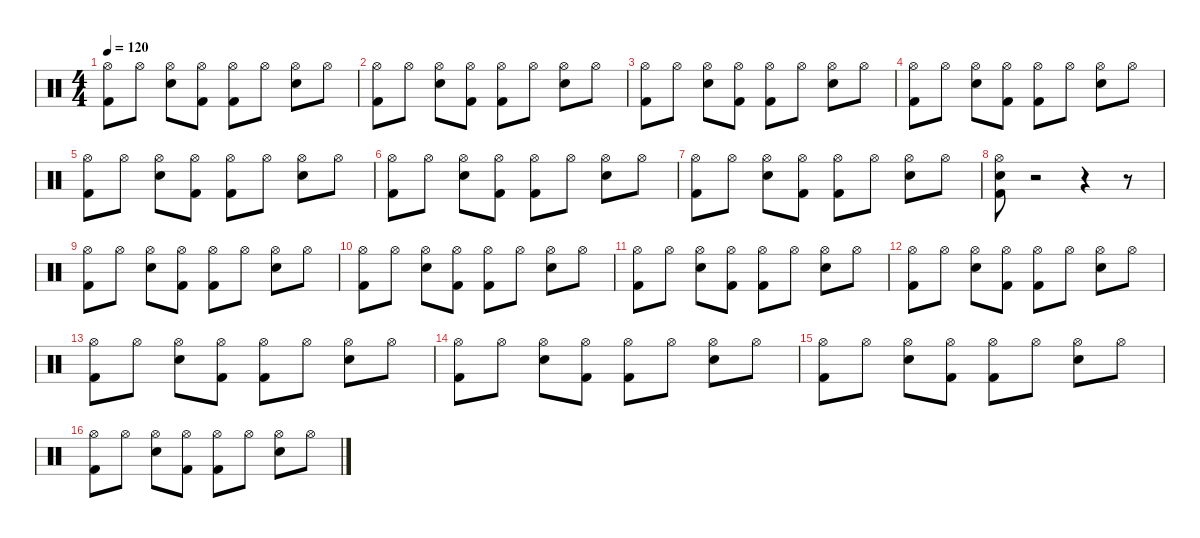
\defaultSystemsLayout 4
\hideDynamics
\bracketExtendMode nobrackets
\singleTrackTrackNamePolicy hidden
\multiTrackTrackNamePolicy hidden
\firstSystemTrackNameMode fullname
\firstSystemTrackNameOrientation horizontal
\otherSystemsTrackNameOrientation horizontal
\track ("Percussion" "drm.") {instrument percussion}
\staff {score}
\articulation defaults
\ts (4 4)
\tempo 120
\clef neutral
\ks c
("Hi-Hat (open)" "Kick (hit) 2").8{dy f beam Down} "Hi-Hat (open)".8{beam Down} ("Hi-Hat (open)" "Snare (hit) 2").8{beam Down} ("Hi-Hat (open)" "Kick (hit) 2").8{beam Down} ("Hi-Hat (open)" "Kick (hit) 2").8{beam Down} "Hi-Hat (open)".8{beam Down} ("Hi-Hat (open)" "Snare (hit) 2").8{beam Down} "Hi-Hat (open)".8{beam Down} |
("Hi-Hat (open)" "Kick (hit) 2").8{beam Down} "Hi-Hat (open)".8{beam Down} ("Hi-Hat (open)" "Snare (hit) 2").8{beam Down} ("Hi-Hat (open)" "Kick (hit) 2").8{beam Down} ("Hi-Hat (open)" "Kick (hit) 2").8{beam Down} "Hi-Hat (open)".8{beam Down} ("Hi-Hat (open)" "Snare (hit) 2").8{beam Down} "Hi-Hat (open)".8{beam Down} |
("Hi-Hat (open)" "Kick (hit) 2").8{beam Down} "Hi-Hat (open)".8{beam Down} ("Hi-Hat (open)" "Snare (hit) 2").8{beam Down} ("Hi-Hat (open)" "Kick (hit) 2").8{beam Down} ("Hi-Hat (open)" "Kick (hit) 2").8{beam Down} "Hi-Hat (open)".8{beam Down} ("Hi-Hat (open)" "Snare (hit) 2").8{beam Down} "Hi-Hat (open)".8{beam Down} |
("Hi-Hat (open)" "Kick (hit) 2").8{beam Down} "Hi-Hat (open)".8{beam Down} ("Hi-Hat (open)" "Snare (hit) 2").8{beam Down} ("Hi-Hat (open)" "Kick (hit) 2").8{beam Down} ("Hi-Hat (open)" "Kick (hit) 2").8{beam Down} "Hi-Hat (open)".8{beam Down} ("Hi-Hat (open)" "Snare (hit) 2").8{beam Down} "Hi-Hat (open)".8{beam Down} |
("Hi-Hat (open)" "Kick (hit) 2").8{beam Down} "Hi-Hat (open)".8{beam Down} ("Hi-Hat (open)" "Snare (hit) 2").8{beam Down} ("Hi-Hat (open)" "Kick (hit) 2").8{beam Down} ("Hi-Hat (open)" "Kick (hit) 2").8{beam Down} "Hi-Hat (open)".8{beam Down} ("Hi-Hat (open)" "Snare (hit) 2").8{beam Down} "Hi-Hat (open)".8{beam Down} |
("Hi-Hat (open)" "Kick (hit) 2").8{beam Down} "Hi-Hat (open)".8{beam Down} ("Hi-Hat (open)" "Snare (hit) 2").8{beam Down} ("Hi-Hat (open)" "Kick (hit) 2").8{beam Down} ("Hi-Hat (open)" "Kick (hit) 2").8{beam Down} "Hi-Hat (open)".8{beam Down} ("Hi-Hat (open)" "Snare (hit) 2").8{beam Down} "Hi-Hat (open)".8{beam Down} |
("Hi-Hat (open)" "Kick (hit) 2").8{beam Down} "Hi-Hat (open)".8{beam Down} ("Hi-Hat (open)" "Snare (hit) 2").8{beam Down} ("Hi-Hat (open)" "Kick (hit) 2").8{beam Down} ("Hi-Hat (open)" "Kick (hit) 2").8{beam Down} "Hi-Hat (open)".8{beam Down} ("Hi-Hat (open)" "Snare (hit) 2").8{beam Down} "Hi-Hat (open)".8{beam Down} |
("Hi-Hat (open)" "Snare (hit) 2" "Kick (hit) 2").8{beam Down} r.2{beam Down} r.4{beam Down} r.8{beam Down} |
("Hi-Hat (open)" "Kick (hit) 2").8{beam Down} "Hi-Hat (open)".8{beam Down} ("Hi-Hat (open)" "Snare (hit) 2").8{beam Down} ("Hi-Hat (open)" "Kick (hit) 2").8{beam Down} ("Hi-Hat (open)" "Kick (hit) 2").8{beam Down} "Hi-Hat (open)".8{beam Down} ("Hi-Hat (open)" "Snare (hit) 2").8{beam Down} "Hi-Hat (open)".8{beam Down} |
("Hi-Hat (open)" "Kick (hit) 2").8{beam Down} "Hi-Hat (open)".8{beam Down} ("Hi-Hat (open)" "Snare (hit) 2").8{beam Down} ("Hi-Hat (open)" "Kick (hit) 2").8{beam Down} ("Hi-Hat (open)" "Kick (hit) 2").8{beam Down} "Hi-Hat (open)".8{beam Down} ("Hi-Hat (open)" "Snare (hit) 2").8{beam Down} "Hi-Hat (open)".8{beam Down} |
("Hi-Hat (open)" "Kick (hit) 2").8{beam Down} "Hi-Hat (open)".8{beam Down} ("Hi-Hat (open)" "Snare (hit) 2").8{beam Down} ("Hi-Hat (open)" "Kick (hit) 2").8{beam Down} ("Hi-Hat (open)" "Kick (hit) 2").8{beam Down} "Hi-Hat (open)".8{beam Down} ("Hi-Hat (open)" "Snare (hit) 2").8{beam Down} "Hi-Hat (open)".8{beam Down} |
("Hi-Hat (open)" "Kick (hit) 2").8{beam Down} "Hi-Hat (open)".8{beam Down} ("Hi-Hat (open)" "Snare (hit) 2").8{beam Down} ("Hi-Hat (open)" "Kick (hit) 2").8{beam Down} ("Hi-Hat (open)" "Kick (hit) 2").8{beam Down} "Hi-Hat (open)".8{beam Down} ("Hi-Hat (open)" "Snare (hit) 2").8{beam Down} "Hi-Hat (open)".8{beam Down} |
("Hi-Hat (open)" "Kick (hit) 2").8{beam Down} "Hi-Hat (open)".8{beam Down} ("Hi-Hat (open)" "Snare (hit) 2").8{beam Down} ("Hi-Hat (open)" "Kick (hit) 2").8{beam Down} ("Hi-Hat (open)" "Kick (hit) 2").8{beam Down} "Hi-Hat (open)".8{beam Down} ("Hi-Hat (open)" "Snare (hit) 2").8{beam Down} "Hi-Hat (open)".8{beam Down} |
("Hi-Hat (open)" "Kick (hit) 2").8{beam Down} "Hi-Hat (open)".8{beam Down} ("Hi-Hat (open)" "Snare (hit) 2").8{beam Down} ("Hi-Hat (open)" "Kick (hit) 2").8{beam Down} ("Hi-Hat (open)" "Kick (hit) 2").8{beam Down} "Hi-Hat (open)".8{beam Down} ("Hi-Hat (open)" "Snare (hit) 2").8{beam Down} "Hi-Hat (open)".8{beam Down} |
("Hi-Hat (open)" "Kick (hit) 2").8{beam Down} "Hi-Hat (open)".8{beam Down} ("Hi-Hat (open)" "Snare (hit) 2").8{beam Down} ("Hi-Hat (open)" "Kick (hit) 2").8{beam Down} ("Hi-Hat (open)" "Kick (hit) 2").8{beam Down} "Hi-Hat (open)".8{beam Down} ("Hi-Hat (open)" "Snare (hit) 2").8{beam Down} "Hi-Hat (open)".8{beam Down} |
("Hi-Hat (open)" "Kick (hit) 2").8{beam Down} "Hi-Hat (open)".8{beam Down} ("Hi-Hat (open)" "Snare (hit) 2").8{beam Down} ("Hi-Hat (open)" "Kick (hit) 2").8{beam Down} ("Hi-Hat (open)" "Kick (hit) 2").8{beam Down} "Hi-Hat (open)".8{beam Down} ("Hi-Hat (open)" "Snare (hit) 2").8{beam Down} "Hi-Hat (open)".8{beam Down}
